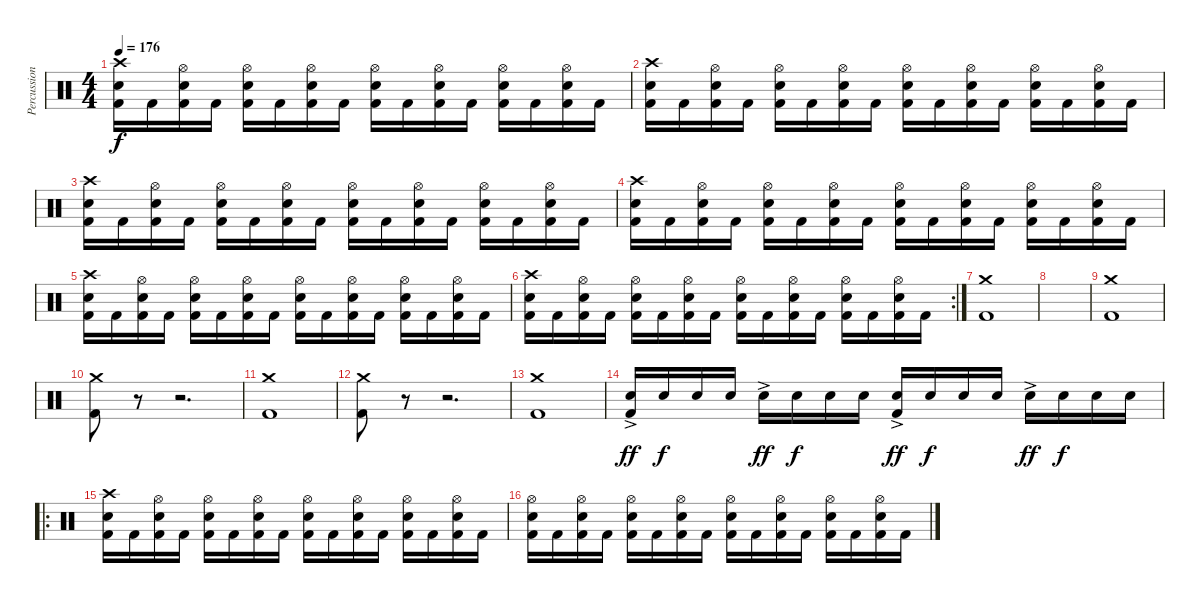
\track ("Percussion" "Percussion") {instrument percussion}
\staff {score}
\articulation defaults
\ts (4 4)
\tempo 176
\clef neutral
\ks c
("Crash high (hit)" "Electric Snare (hit)" "Kick (hit) 2").16{dy f} "Kick (hit) 2".16 ("Hi-Hat (open)" "Electric Snare (hit)" "Kick (hit) 2").16 "Kick (hit) 2".16 ("Hi-Hat (open)" "Electric Snare (hit)" "Kick (hit) 2").16 "Kick (hit) 2".16 ("Hi-Hat (open)" "Electric Snare (hit)" "Kick (hit) 2").16 "Kick (hit) 2".16 ("Hi-Hat (open)" "Electric Snare (hit)" "Kick (hit) 2").16 "Kick (hit) 2".16 ("Hi-Hat (open)" "Electric Snare (hit)" "Kick (hit) 2").16 "Kick (hit) 2".16 ("Hi-Hat (open)" "Electric Snare (hit)" "Kick (hit) 2").16 "Kick (hit) 2".16 ("Hi-Hat (open)" "Electric Snare (hit)" "Kick (hit) 2").16 "Kick (hit) 2".16 |
("Crash high (hit)" "Electric Snare (hit)" "Kick (hit) 2").16 "Kick (hit) 2".16 ("Hi-Hat (open)" "Electric Snare (hit)" "Kick (hit) 2").16 "Kick (hit) 2".16 ("Hi-Hat (open)" "Electric Snare (hit)" "Kick (hit) 2").16 "Kick (hit) 2".16 ("Hi-Hat (open)" "Electric Snare (hit)" "Kick (hit) 2").16 "Kick (hit) 2".16 ("Hi-Hat (open)" "Electric Snare (hit)" "Kick (hit) 2").16 "Kick (hit) 2".16 ("Hi-Hat (open)" "Electric Snare (hit)" "Kick (hit) 2").16 "Kick (hit) 2".16 ("Hi-Hat (open)" "Electric Snare (hit)" "Kick (hit) 2").16 "Kick (hit) 2".16 ("Hi-Hat (open)" "Electric Snare (hit)" "Kick (hit) 2").16 "Kick (hit) 2".16 |
("Crash high (hit)" "Electric Snare (hit)" "Kick (hit) 2").16 "Kick (hit) 2".16 ("Hi-Hat (open)" "Electric Snare (hit)" "Kick (hit) 2").16 "Kick (hit) 2".16 ("Hi-Hat (open)" "Electric Snare (hit)" "Kick (hit) 2").16 "Kick (hit) 2".16 ("Hi-Hat (open)" "Electric Snare (hit)" "Kick (hit) 2").16 "Kick (hit) 2".16 ("Hi-Hat (open)" "Electric Snare (hit)" "Kick (hit) 2").16 "Kick (hit) 2".16 ("Hi-Hat (open)" "Electric Snare (hit)" "Kick (hit) 2").16 "Kick (hit) 2".16 ("Hi-Hat (open)" "Electric Snare (hit)" "Kick (hit) 2").16 "Kick (hit) 2".16 ("Hi-Hat (open)" "Electric Snare (hit)" "Kick (hit) 2").16 "Kick (hit) 2".16 |
("Crash high (hit)" "Electric Snare (hit)" "Kick (hit) 2").16 "Kick (hit) 2".16 ("Hi-Hat (open)" "Electric Snare (hit)" "Kick (hit) 2").16 "Kick (hit) 2".16 ("Hi-Hat (open)" "Electric Snare (hit)" "Kick (hit) 2").16 "Kick (hit) 2".16 ("Hi-Hat (open)" "Electric Snare (hit)" "Kick (hit) 2").16 "Kick (hit) 2".16 ("Hi-Hat (open)" "Electric Snare (hit)" "Kick (hit) 2").16 "Kick (hit) 2".16 ("Hi-Hat (open)" "Electric Snare (hit)" "Kick (hit) 2").16 "Kick (hit) 2".16 ("Hi-Hat (open)" "Electric Snare (hit)" "Kick (hit) 2").16 "Kick (hit) 2".16 ("Hi-Hat (open)" "Electric Snare (hit)" "Kick (hit) 2").16 "Kick (hit) 2".16 |
("Crash high (hit)" "Electric Snare (hit)" "Kick (hit) 2").16 "Kick (hit) 2".16 ("Hi-Hat (open)" "Electric Snare (hit)" "Kick (hit) 2").16 "Kick (hit) 2".16 ("Hi-Hat (open)" "Electric Snare (hit)" "Kick (hit) 2").16 "Kick (hit) 2".16 ("Hi-Hat (open)" "Electric Snare (hit)" "Kick (hit) 2").16 "Kick (hit) 2".16 ("Hi-Hat (open)" "Electric Snare (hit)" "Kick (hit) 2").16 "Kick (hit) 2".16 ("Hi-Hat (open)" "Electric Snare (hit)" "Kick (hit) 2").16 "Kick (hit) 2".16 ("Hi-Hat (open)" "Electric Snare (hit)" "Kick (hit) 2").16 "Kick (hit) 2".16 ("Hi-Hat (open)" "Electric Snare (hit)" "Kick (hit) 2").16 "Kick (hit) 2".16 |
\rc 2
("Crash high (hit)" "Electric Snare (hit)" "Kick (hit) 2").16 "Kick (hit) 2".16 ("Hi-Hat (open)" "Electric Snare (hit)" "Kick (hit) 2").16 "Kick (hit) 2".16 ("Hi-Hat (open)" "Electric Snare (hit)" "Kick (hit) 2").16 "Kick (hit) 2".16 ("Hi-Hat (open)" "Electric Snare (hit)" "Kick (hit) 2").16 "Kick (hit) 2".16 ("Hi-Hat (open)" "Electric Snare (hit)" "Kick (hit) 2").16 "Kick (hit) 2".16 ("Hi-Hat (open)" "Electric Snare (hit)" "Kick (hit) 2").16 "Kick (hit) 2".16 ("Hi-Hat (open)" "Electric Snare (hit)" "Kick (hit) 2").16 "Kick (hit) 2".16 ("Hi-Hat (open)" "Electric Snare (hit)" "Kick (hit) 2").16 "Kick (hit) 2".16 |
("Crash medium (hit)" "Kick (hit) 2").1 |
|
("Crash medium (hit)" "Kick (hit) 2").1 |
("Crash medium (hit)" "Kick (hit) 2").8 r.8{volume 0} r.2{d} |
("Crash medium (hit)" "Kick (hit) 2").1{volume 13} |
("Crash medium (hit)" "Kick (hit) 2").8 r.8{volume 0} r.2{d} |
("Crash medium (hit)" "Kick (hit) 2").1{volume 13} |
("Electric Snare (hit)"{ac} "Kick (hit) 2").16{dy ff} "Electric Snare (hit)".16{dy f} "Electric Snare (hit)".16 "Electric Snare (hit)".16 "Electric Snare (hit)"{ac}.16{dy ff} "Electric Snare (hit)".16{dy f} "Electric Snare (hit)".16 "Electric Snare (hit)".16 ("Electric Snare (hit)"{ac} "Kick (hit) 2").16{dy ff} "Electric Snare (hit)".16{dy f} "Electric Snare (hit)".16 "Electric Snare (hit)".16 "Electric Snare (hit)"{ac}.16{dy ff} "Electric Snare (hit)".16{dy f} "Electric Snare (hit)".16 "Electric Snare (hit)".16 |
\ro
("Crash high (hit)" "Electric Snare (hit)" "Kick (hit) 2").16 "Kick (hit) 2".16 ("Hi-Hat (open)" "Electric Snare (hit)" "Kick (hit) 2").16 "Kick (hit) 2".16 ("Hi-Hat (open)" "Electric Snare (hit)" "Kick (hit) 2").16 "Kick (hit) 2".16 ("Hi-Hat (open)" "Electric Snare (hit)" "Kick (hit) 2").16 "Kick (hit) 2".16 ("Hi-Hat (open)" "Electric Snare (hit)" "Kick (hit) 2").16 "Kick (hit) 2".16 ("Hi-Hat (open)" "Electric Snare (hit)" "Kick (hit) 2").16 "Kick (hit) 2".16 ("Hi-Hat (open)" "Electric Snare (hit)" "Kick (hit) 2").16 "Kick (hit) 2".16 ("Hi-Hat (open)" "Electric Snare (hit)" "Kick (hit) 2").16 "Kick (hit) 2".16 |
("Hi-Hat (open)" "Electric Snare (hit)" "Kick (hit) 2").16 "Kick (hit) 2".16 ("Hi-Hat (open)" "Electric Snare (hit)" "Kick (hit) 2").16 "Kick (hit) 2".16 ("Hi-Hat (open)" "Electric Snare (hit)" "Kick (hit) 2").16 "Kick (hit) 2".16 ("Hi-Hat (open)" "Electric Snare (hit)" "Kick (hit) 2").16 "Kick (hit) 2".16 ("Hi-Hat (open)" "Electric Snare (hit)" "Kick (hit) 2").16 "Kick (hit) 2".16 ("Hi-Hat (open)" "Electric Snare (hit)" "Kick (hit) 2").16 "Kick (hit) 2".16 ("Hi-Hat (open)" "Electric Snare (hit)" "Kick (hit) 2").16 "Kick (hit) 2".16 ("Hi-Hat (open)" "Electric Snare (hit)" "Kick (hit) 2").16 "Kick (hit) 2".16
